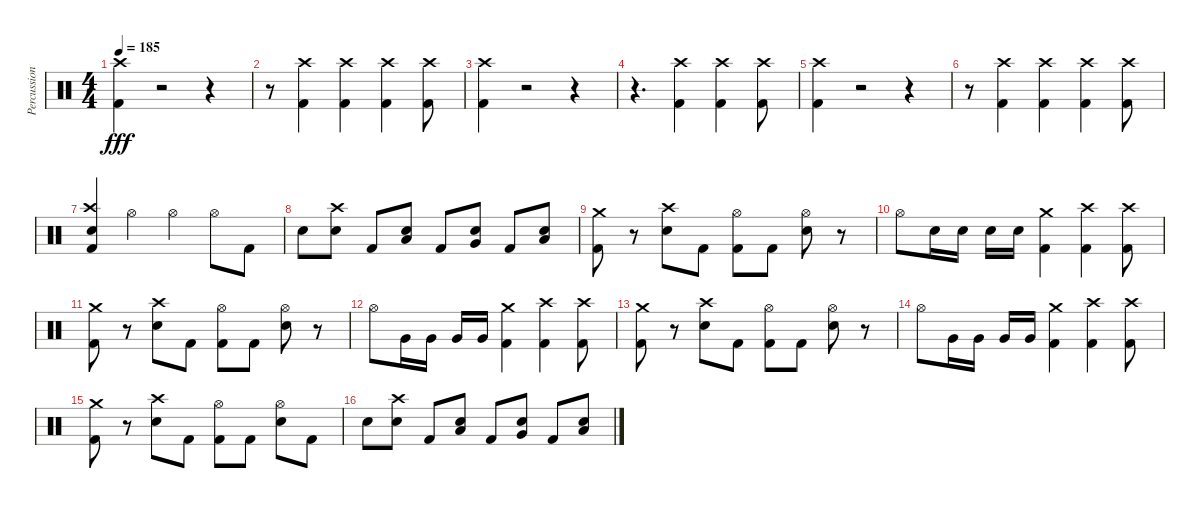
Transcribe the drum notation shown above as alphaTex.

\track ("Percussion" "Percussion") {instrument percussion}
\staff {score}
\articulation defaults
\ts (4 4)
\tempo 185
\clef neutral
\ks c
("Kick (hit) 2" "Crash high (hit)").4{dy fff} r.2 r.4 |
r.8 ("Kick (hit) 2" "Crash high (hit)").4 ("Kick (hit) 2" "Crash high (hit)").4 ("Kick (hit) 2" "Crash high (hit)").4 ("Kick (hit) 2" "Crash high (hit)").8 |
("Kick (hit) 2" "Crash high (hit)").4 r.2 r.4 |
r.4{d} ("Kick (hit) 2" "Crash high (hit)").4 ("Kick (hit) 2" "Crash high (hit)").4 ("Kick (hit) 2" "Crash high (hit)").8 |
("Kick (hit) 2" "Crash high (hit)").4 r.2 r.4 |
r.8 ("Kick (hit) 2" "Crash high (hit)").4 ("Kick (hit) 2" "Crash high (hit)").4 ("Kick (hit) 2" "Crash high (hit)").4 ("Kick (hit) 2" "Crash high (hit)").8 |
("Kick (hit) 2" "Crash high (hit)" "Electric Snare (hit)").4 "Hi-Hat (open)".4 "Hi-Hat (open)".4 "Hi-Hat (open)".8 "Kick (hit) 2".8 |
"Electric Snare (hit)".8 ("Crash high (hit)" "Electric Snare (hit)").8 "Kick (hit) 2".8 ("Electric Snare (hit)" "Low Tom (hit)").8 "Kick (hit) 2".8 ("Electric Snare (hit)" "Very Low Tom (hit)").8 "Kick (hit) 2".8 ("Electric Snare (hit)" "Low Floor Tom (hit)").8 |
("Kick (hit) 2" "Crash medium (hit)").8 r.8 ("Electric Snare (hit)" "Crash high (hit)").8 "Kick (hit) 2".8 ("Kick (hit) 2" "Hi-Hat (open)").8 "Kick (hit) 2".8 ("Electric Snare (hit)" "Hi-Hat (open)").8 r.8 |
"Hi-Hat (open)".8 "Electric Snare (hit)".16 "Electric Snare (hit)".16 "Electric Snare (hit)".16 "Electric Snare (hit)".16 ("Kick (hit) 2" "Crash medium (hit)").4 ("Kick (hit) 2" "Crash high (hit)").4 ("Kick (hit) 2" "Crash high (hit)").8 |
("Kick (hit) 2" "Crash medium (hit)").8 r.8 ("Electric Snare (hit)" "Crash high (hit)").8 "Kick (hit) 2".8 ("Kick (hit) 2" "Hi-Hat (open)").8 "Kick (hit) 2".8 ("Electric Snare (hit)" "Hi-Hat (open)").8 r.8 |
"Hi-Hat (open)".8 "Very Low Tom (hit)".16 "Very Low Tom (hit)".16 "Very Low Tom (hit)".16 "Very Low Tom (hit)".16 ("Kick (hit) 2" "Crash medium (hit)").4 ("Kick (hit) 2" "Crash high (hit)").4 ("Kick (hit) 2" "Crash high (hit)").8 |
("Kick (hit) 2" "Crash medium (hit)").8 r.8 ("Electric Snare (hit)" "Crash high (hit)").8 "Kick (hit) 2".8 ("Kick (hit) 2" "Hi-Hat (open)").8 "Kick (hit) 2".8 ("Electric Snare (hit)" "Hi-Hat (open)").8 r.8 |
"Hi-Hat (open)".8 "Very Low Tom (hit)".16 "Very Low Tom (hit)".16 "Very Low Tom (hit)".16 "Very Low Tom (hit)".16 ("Kick (hit) 2" "Crash medium (hit)").4 ("Kick (hit) 2" "Crash high (hit)").4 ("Kick (hit) 2" "Crash high (hit)").8 |
("Kick (hit) 2" "Crash medium (hit)").8 r.8 ("Electric Snare (hit)" "Crash high (hit)").8 "Kick (hit) 2".8 ("Kick (hit) 2" "Hi-Hat (open)").8 "Kick (hit) 2".8 ("Electric Snare (hit)" "Hi-Hat (open)").8 "Kick (hit) 2".8 |
"Electric Snare (hit)".8 ("Crash high (hit)" "Electric Snare (hit)").8 "Kick (hit) 2".8 ("Electric Snare (hit)" "Low Tom (hit)").8 "Kick (hit) 2".8 ("Electric Snare (hit)" "Very Low Tom (hit)").8 "Kick (hit) 2".8 ("Electric Snare (hit)" "Low Floor Tom (hit)").8
